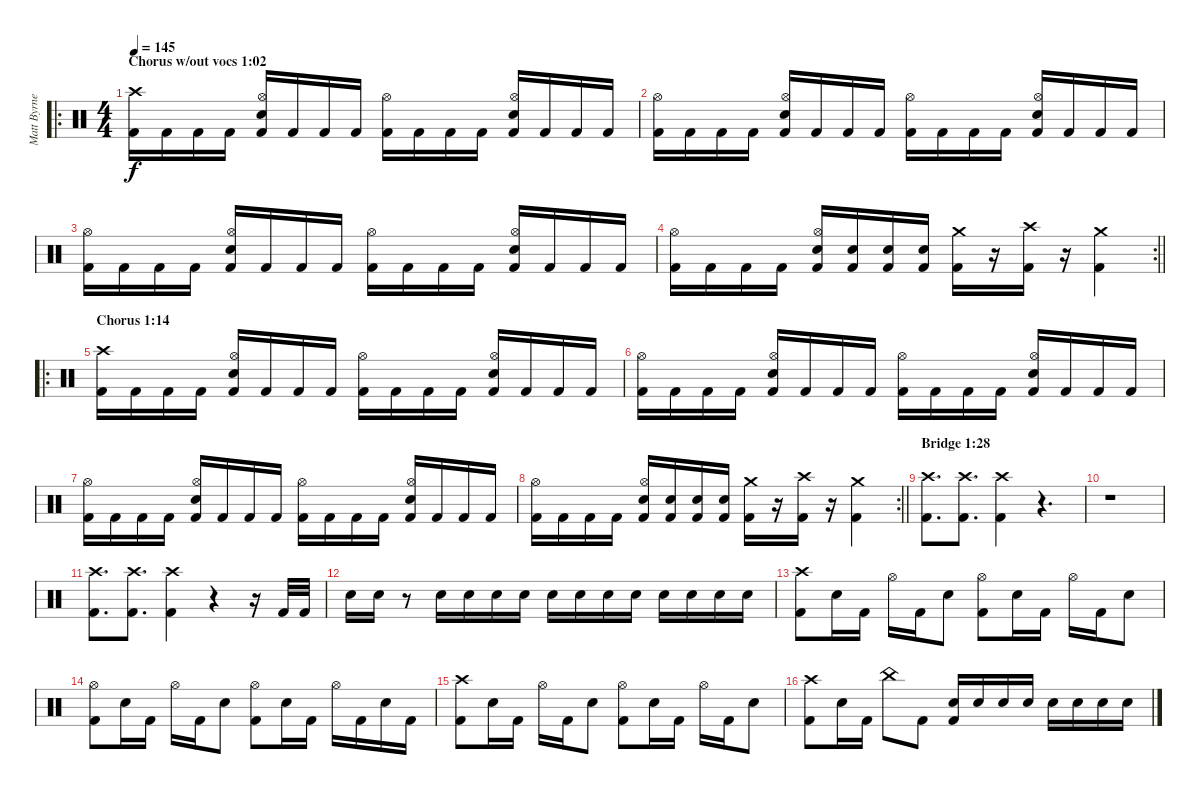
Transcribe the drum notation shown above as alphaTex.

\track ("Matt Byrne, Drums" "Matt Byrne") {instrument percussion}
\staff {score}
\articulation defaults
\ro
\ts (4 4)
\section ("" "Chorus w/out vocs 1:02")
\tempo 145
\clef neutral
\ks c
("Crash high (hit)" "Kick (hit) 2").16{dy f} "Kick (hit) 2".16 "Kick (hit) 2".16 "Kick (hit) 2".16 ("Hi-Hat (open)" "Electric Snare (hit)" "Kick (hit) 2").16 "Kick (hit) 2".16 "Kick (hit) 2".16 "Kick (hit) 2".16 ("Hi-Hat (open)" "Kick (hit) 2").16 "Kick (hit) 2".16 "Kick (hit) 2".16 "Kick (hit) 2".16 ("Hi-Hat (open)" "Electric Snare (hit)" "Kick (hit) 2").16 "Kick (hit) 2".16 "Kick (hit) 2".16 "Kick (hit) 2".16 |
("Hi-Hat (open)" "Kick (hit) 2").16 "Kick (hit) 2".16 "Kick (hit) 2".16 "Kick (hit) 2".16 ("Hi-Hat (open)" "Electric Snare (hit)" "Kick (hit) 2").16 "Kick (hit) 2".16 "Kick (hit) 2".16 "Kick (hit) 2".16 ("Hi-Hat (open)" "Kick (hit) 2").16 "Kick (hit) 2".16 "Kick (hit) 2".16 "Kick (hit) 2".16 ("Hi-Hat (open)" "Electric Snare (hit)" "Kick (hit) 2").16 "Kick (hit) 2".16 "Kick (hit) 2".16 "Kick (hit) 2".16 |
("Hi-Hat (open)" "Kick (hit) 2").16 "Kick (hit) 2".16 "Kick (hit) 2".16 "Kick (hit) 2".16 ("Hi-Hat (open)" "Electric Snare (hit)" "Kick (hit) 2").16 "Kick (hit) 2".16 "Kick (hit) 2".16 "Kick (hit) 2".16 ("Hi-Hat (open)" "Kick (hit) 2").16 "Kick (hit) 2".16 "Kick (hit) 2".16 "Kick (hit) 2".16 ("Hi-Hat (open)" "Electric Snare (hit)" "Kick (hit) 2").16 "Kick (hit) 2".16 "Kick (hit) 2".16 "Kick (hit) 2".16 |
\rc 2
\barLineRight lightlight
("Hi-Hat (open)" "Kick (hit) 2").16 "Kick (hit) 2".16 "Kick (hit) 2".16 "Kick (hit) 2".16 ("Hi-Hat (open)" "Electric Snare (hit)" "Kick (hit) 2").16 ("Electric Snare (hit)" "Kick (hit) 2").16 ("Electric Snare (hit)" "Kick (hit) 2").16 ("Electric Snare (hit)" "Kick (hit) 2").16 ("Crash medium (hit)" "Kick (hit) 2").16 r.16 ("Crash high (hit)" "Kick (hit) 2").16 r.16 ("Crash medium (hit)" "Kick (hit) 2").4 |
\ro
\section ("" "Chorus 1:14")
("Crash high (hit)" "Kick (hit) 2").16 "Kick (hit) 2".16 "Kick (hit) 2".16 "Kick (hit) 2".16 ("Hi-Hat (open)" "Electric Snare (hit)" "Kick (hit) 2").16 "Kick (hit) 2".16 "Kick (hit) 2".16 "Kick (hit) 2".16 ("Hi-Hat (open)" "Kick (hit) 2").16 "Kick (hit) 2".16 "Kick (hit) 2".16 "Kick (hit) 2".16 ("Hi-Hat (open)" "Electric Snare (hit)" "Kick (hit) 2").16 "Kick (hit) 2".16 "Kick (hit) 2".16 "Kick (hit) 2".16 |
("Hi-Hat (open)" "Kick (hit) 2").16 "Kick (hit) 2".16 "Kick (hit) 2".16 "Kick (hit) 2".16 ("Hi-Hat (open)" "Electric Snare (hit)" "Kick (hit) 2").16 "Kick (hit) 2".16 "Kick (hit) 2".16 "Kick (hit) 2".16 ("Hi-Hat (open)" "Kick (hit) 2").16 "Kick (hit) 2".16 "Kick (hit) 2".16 "Kick (hit) 2".16 ("Hi-Hat (open)" "Electric Snare (hit)" "Kick (hit) 2").16 "Kick (hit) 2".16 "Kick (hit) 2".16 "Kick (hit) 2".16 |
("Hi-Hat (open)" "Kick (hit) 2").16 "Kick (hit) 2".16 "Kick (hit) 2".16 "Kick (hit) 2".16 ("Hi-Hat (open)" "Electric Snare (hit)" "Kick (hit) 2").16 "Kick (hit) 2".16 "Kick (hit) 2".16 "Kick (hit) 2".16 ("Hi-Hat (open)" "Kick (hit) 2").16 "Kick (hit) 2".16 "Kick (hit) 2".16 "Kick (hit) 2".16 ("Hi-Hat (open)" "Electric Snare (hit)" "Kick (hit) 2").16 "Kick (hit) 2".16 "Kick (hit) 2".16 "Kick (hit) 2".16 |
\rc 2
\barLineRight lightlight
("Hi-Hat (open)" "Kick (hit) 2").16 "Kick (hit) 2".16 "Kick (hit) 2".16 "Kick (hit) 2".16 ("Hi-Hat (open)" "Electric Snare (hit)" "Kick (hit) 2").16 ("Electric Snare (hit)" "Kick (hit) 2").16 ("Electric Snare (hit)" "Kick (hit) 2").16 ("Electric Snare (hit)" "Kick (hit) 2").16 ("Crash medium (hit)" "Kick (hit) 2").16 r.16 ("Crash high (hit)" "Kick (hit) 2").16 r.16 ("Crash medium (hit)" "Kick (hit) 2").4 |
\section ("" "Bridge 1:28")
("Crash high (hit)" "Kick (hit) 2").8{d} ("Crash high (hit)" "Kick (hit) 2").8{d} ("Crash high (hit)" "Kick (hit) 2").4 r.4{d} |
r.1 |
("Crash high (hit)" "Kick (hit) 2").8{d} ("Crash high (hit)" "Kick (hit) 2").8{d} ("Crash high (hit)" "Kick (hit) 2").4 r.4 r.16 "Kick (hit) 2".32 "Kick (hit) 2".32 |
"Electric Snare (hit)".16 "Electric Snare (hit)".16 r.8 "Electric Snare (hit)".16 "Electric Snare (hit)".16 "Electric Snare (hit)".16 "Electric Snare (hit)".16 "Electric Snare (hit)".16 "Electric Snare (hit)".16 "Electric Snare (hit)".16 "Electric Snare (hit)".16 "Electric Snare (hit)".16 "Electric Snare (hit)".16 "Electric Snare (hit)".16 "Electric Snare (hit)".16 |
("Crash high (hit)" "Kick (hit) 2").8 "Electric Snare (hit)".16 "Kick (hit) 2".16 "Hi-Hat (open)".16 "Kick (hit) 2".16 "Electric Snare (hit)".8 ("Hi-Hat (open)" "Kick (hit) 2").8 "Electric Snare (hit)".16 "Kick (hit) 2".16 "Hi-Hat (open)".16 "Kick (hit) 2".16 "Electric Snare (hit)".8 |
("Hi-Hat (open)" "Kick (hit) 2").8 "Electric Snare (hit)".16 "Kick (hit) 2".16 "Hi-Hat (open)".16 "Kick (hit) 2".16 "Electric Snare (hit)".8 ("Hi-Hat (open)" "Kick (hit) 2").8 "Electric Snare (hit)".16 "Kick (hit) 2".16 "Hi-Hat (open)".16 "Kick (hit) 2".16 "Electric Snare (hit)".16 "Kick (hit) 2".16 |
("Crash high (hit)" "Kick (hit) 2").8 "Electric Snare (hit)".16 "Kick (hit) 2".16 "Hi-Hat (open)".16 "Kick (hit) 2".16 "Electric Snare (hit)".8 ("Hi-Hat (open)" "Kick (hit) 2").8 "Electric Snare (hit)".16 "Kick (hit) 2".16 "Hi-Hat (open)".16 "Kick (hit) 2".16 "Electric Snare (hit)".8 |
("Crash high (hit)" "Kick (hit) 2").8 "Electric Snare (hit)".16 "Kick (hit) 2".16 "China (hit)".8 "Kick (hit) 2".8 ("Electric Snare (hit)" "Kick (hit) 2").16 "Electric Snare (hit)".16 "Electric Snare (hit)".16 "Electric Snare (hit)".16 "Electric Snare (hit)".16 "Electric Snare (hit)".16 "Electric Snare (hit)".16 "Electric Snare (hit)".16
